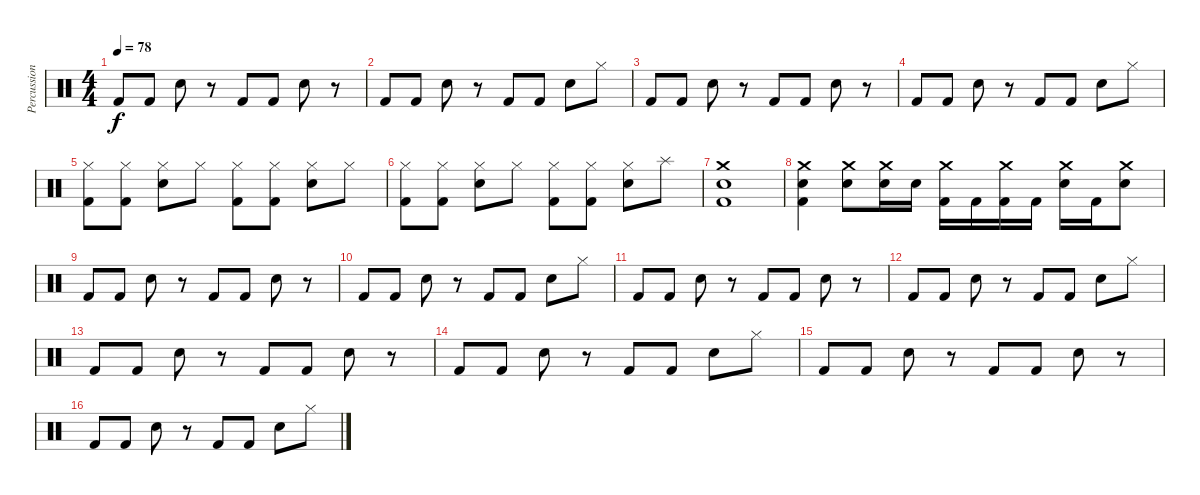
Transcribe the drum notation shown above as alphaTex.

\track ("Percussions" "Percussion") {instrument percussion}
\staff {score}
\articulation defaults
\ts (4 4)
\tempo 78
\clef neutral
\ks c "Kick (hit) 2".8{dy f} "Kick (hit) 2".8 "Electric Snare (hit)".8
r.8 "Kick (hit) 2".8 "Kick (hit) 2".8 "Electric Snare (hit)".8 r.8 |
"Kick (hit) 2".8 "Kick (hit) 2".8 "Electric Snare (hit)".8 r.8 "Kick (hit) 2".8 "Kick (hit) 2".8 "Electric Snare (hit)".8 "Hi-Hat (closed)".8 |
"Kick (hit) 2".8 "Kick (hit) 2".8 "Electric Snare (hit)".8 r.8 "Kick (hit) 2".8 "Kick (hit) 2".8 "Electric Snare (hit)".8 r.8 |
"Kick (hit) 2".8 "Kick (hit) 2".8 "Electric Snare (hit)".8 r.8 "Kick (hit) 2".8 "Kick (hit) 2".8 "Electric Snare (hit)".8 "Hi-Hat (closed)".8 |
("Hi-Hat (closed)" "Kick (hit) 2").8 ("Hi-Hat (closed)" "Kick (hit) 2").8 ("Hi-Hat (closed)" "Electric Snare (hit)").8 "Hi-Hat (closed)".8 ("Hi-Hat (closed)" "Kick (hit) 2").8 ("Hi-Hat (closed)" "Kick (hit) 2").8 ("Hi-Hat (closed)" "Electric Snare (hit)").8 "Hi-Hat (closed)".8 |
("Hi-Hat (closed)" "Kick (hit) 2").8 ("Hi-Hat (closed)" "Kick (hit) 2").8 ("Hi-Hat (closed)" "Electric Snare (hit)").8 "Hi-Hat (closed)".8 ("Hi-Hat (closed)" "Kick (hit) 2").8 ("Hi-Hat (closed)" "Kick (hit) 2").8 ("Hi-Hat (closed)" "Electric Snare (hit)").8 "Splash (hit)".8 |
("Crash medium (hit)" "Electric Snare (hit)" "Kick (hit) 2").1 |
("Crash medium (hit)" "Electric Snare (hit)" "Kick (hit) 2").4 ("Crash medium (hit)" "Electric Snare (hit)").8 ("Crash medium (hit)" "Electric Snare (hit)").16 "Electric Snare (hit)".16 ("Crash medium (hit)" "Kick (hit) 2").16 "Kick (hit) 2".16 ("Crash medium (hit)" "Kick (hit) 2").16 "Kick (hit) 2".16 ("Crash medium (hit)" "Electric Snare (hit)").16 "Kick (hit) 2".16 ("Crash medium (hit)" "Electric Snare (hit)").8 |
"Kick (hit) 2".8 "Kick (hit) 2".8 "Electric Snare (hit)".8 r.8 "Kick (hit) 2".8 "Kick (hit) 2".8 "Electric Snare (hit)".8 r.8 |
"Kick (hit) 2".8 "Kick (hit) 2".8 "Electric Snare (hit)".8 r.8 "Kick (hit) 2".8 "Kick (hit) 2".8 "Electric Snare (hit)".8 "Hi-Hat (closed)".8 |
"Kick (hit) 2".8 "Kick (hit) 2".8 "Electric Snare (hit)".8 r.8 "Kick (hit) 2".8 "Kick (hit) 2".8 "Electric Snare (hit)".8 r.8 |
"Kick (hit) 2".8 "Kick (hit) 2".8 "Electric Snare (hit)".8 r.8 "Kick (hit) 2".8 "Kick (hit) 2".8 "Electric Snare (hit)".8 "Hi-Hat (closed)".8 |
"Kick (hit) 2".8 "Kick (hit) 2".8 "Electric Snare (hit)".8 r.8 "Kick (hit) 2".8 "Kick (hit) 2".8 "Electric Snare (hit)".8 r.8 |
"Kick (hit) 2".8 "Kick (hit) 2".8 "Electric Snare (hit)".8 r.8 "Kick (hit) 2".8 "Kick (hit) 2".8 "Electric Snare (hit)".8 "Hi-Hat (closed)".8 |
"Kick (hit) 2".8 "Kick (hit) 2".8 "Electric Snare (hit)".8 r.8 "Kick (hit) 2".8 "Kick (hit) 2".8 "Electric Snare (hit)".8 r.8 |
"Kick (hit) 2".8 "Kick (hit) 2".8 "Electric Snare (hit)".8 r.8 "Kick (hit) 2".8 "Kick (hit) 2".8 "Electric Snare (hit)".8 "Hi-Hat (closed)".8
